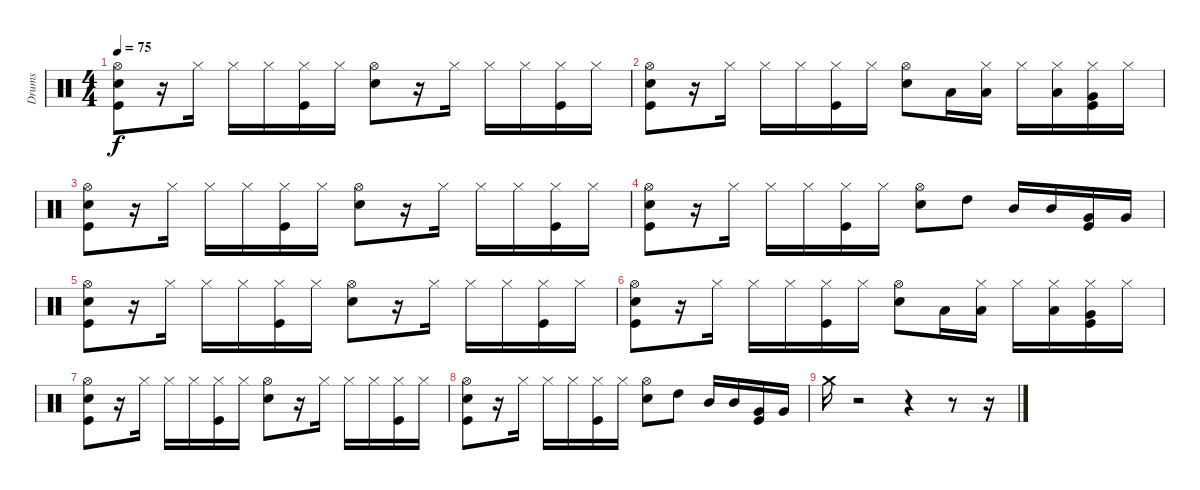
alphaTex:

\track ("Drums" "Drums") {instrument percussion}
\staff {score}
\articulation defaults
\ts (4 4)
\tempo 75
\clef neutral
\ks c
("Hi-Hat (open)" "Kick (hit)" "Snare (hit) 2").8{dy f} r.16 "Hi-Hat (closed)".16 "Hi-Hat (closed)".16 "Hi-Hat (closed)".16 ("Kick (hit)" "Hi-Hat (closed)").16 "Hi-Hat (closed)".16 ("Snare (hit) 2" "Hi-Hat (open)").8 r.16 "Hi-Hat (closed)".16 "Hi-Hat (closed)".16 "Hi-Hat (closed)".16 ("Kick (hit)" "Hi-Hat (closed)").16 "Hi-Hat (closed)".16 |
("Hi-Hat (open)" "Kick (hit)" "Snare (hit) 2").8 r.16 "Hi-Hat (closed)".16 "Hi-Hat (closed)".16 "Hi-Hat (closed)".16 ("Kick (hit)" "Hi-Hat (closed)").16 "Hi-Hat (closed)".16 ("Snare (hit) 2" "Hi-Hat (open)").8 "Low Tom (hit)".16 ("Low Tom (hit)" "Hi-Hat (closed)").16 "Hi-Hat (closed)".16 ("Low Tom (hit)" "Hi-Hat (closed)").16 ("Very Low Tom (hit)" "Kick (hit)" "Hi-Hat (closed)").16 "Hi-Hat (closed)".16 |
("Hi-Hat (open)" "Kick (hit)" "Snare (hit) 2").8 r.16 "Hi-Hat (closed)".16 "Hi-Hat (closed)".16 "Hi-Hat (closed)".16 ("Kick (hit)" "Hi-Hat (closed)").16 "Hi-Hat (closed)".16 ("Snare (hit) 2" "Hi-Hat (open)").8 r.16 "Hi-Hat (closed)".16 "Hi-Hat (closed)".16 "Hi-Hat (closed)".16 ("Kick (hit)" "Hi-Hat (closed)").16 "Hi-Hat (closed)".16 |
("Hi-Hat (open)" "Kick (hit)" "Snare (hit) 2").8 r.16 "Hi-Hat (closed)".16 "Hi-Hat (closed)".16 "Hi-Hat (closed)".16 ("Kick (hit)" "Hi-Hat (closed)").16 "Hi-Hat (closed)".16 ("Snare (hit) 2" "Hi-Hat (open)").8 "High Tom (hit)".8 "Mid Tom (hit)".16 "Mid Tom (hit)".16 ("Very Low Tom (hit)" "Kick (hit)").16 "Very Low Tom (hit)".16 |
("Hi-Hat (open)" "Kick (hit)" "Snare (hit) 2").8 r.16 "Hi-Hat (closed)".16 "Hi-Hat (closed)".16 "Hi-Hat (closed)".16 ("Kick (hit)" "Hi-Hat (closed)").16 "Hi-Hat (closed)".16 ("Snare (hit) 2" "Hi-Hat (open)").8 r.16 "Hi-Hat (closed)".16 "Hi-Hat (closed)".16 "Hi-Hat (closed)".16 ("Kick (hit)" "Hi-Hat (closed)").16 "Hi-Hat (closed)".16 |
("Hi-Hat (open)" "Kick (hit)" "Snare (hit) 2").8 r.16 "Hi-Hat (closed)".16 "Hi-Hat (closed)".16 "Hi-Hat (closed)".16 ("Kick (hit)" "Hi-Hat (closed)").16 "Hi-Hat (closed)".16 ("Snare (hit) 2" "Hi-Hat (open)").8 "Low Tom (hit)".16 ("Low Tom (hit)" "Hi-Hat (closed)").16 "Hi-Hat (closed)".16 ("Low Tom (hit)" "Hi-Hat (closed)").16 ("Very Low Tom (hit)" "Kick (hit)" "Hi-Hat (closed)").16 "Hi-Hat (closed)".16 |
("Hi-Hat (open)" "Kick (hit)" "Snare (hit) 2").8 r.16 "Hi-Hat (closed)".16 "Hi-Hat (closed)".16 "Hi-Hat (closed)".16 ("Kick (hit)" "Hi-Hat (closed)").16 "Hi-Hat (closed)".16 ("Snare (hit) 2" "Hi-Hat (open)").8 r.16 "Hi-Hat (closed)".16 "Hi-Hat (closed)".16 "Hi-Hat (closed)".16 ("Kick (hit)" "Hi-Hat (closed)").16 "Hi-Hat (closed)".16 |
("Hi-Hat (open)" "Kick (hit)" "Snare (hit) 2").8 r.16 "Hi-Hat (closed)".16 "Hi-Hat (closed)".16 "Hi-Hat (closed)".16 ("Kick (hit)" "Hi-Hat (closed)").16 "Hi-Hat (closed)".16 ("Snare (hit) 2" "Hi-Hat (open)").8 "High Tom (hit)".8 "Mid Tom (hit)".16 "Mid Tom (hit)".16 ("Very Low Tom (hit)" "Kick (hit)").16 "Very Low Tom (hit)".16 |
"Crash medium (hit)".16 r.2 r.4 r.8 r.16
